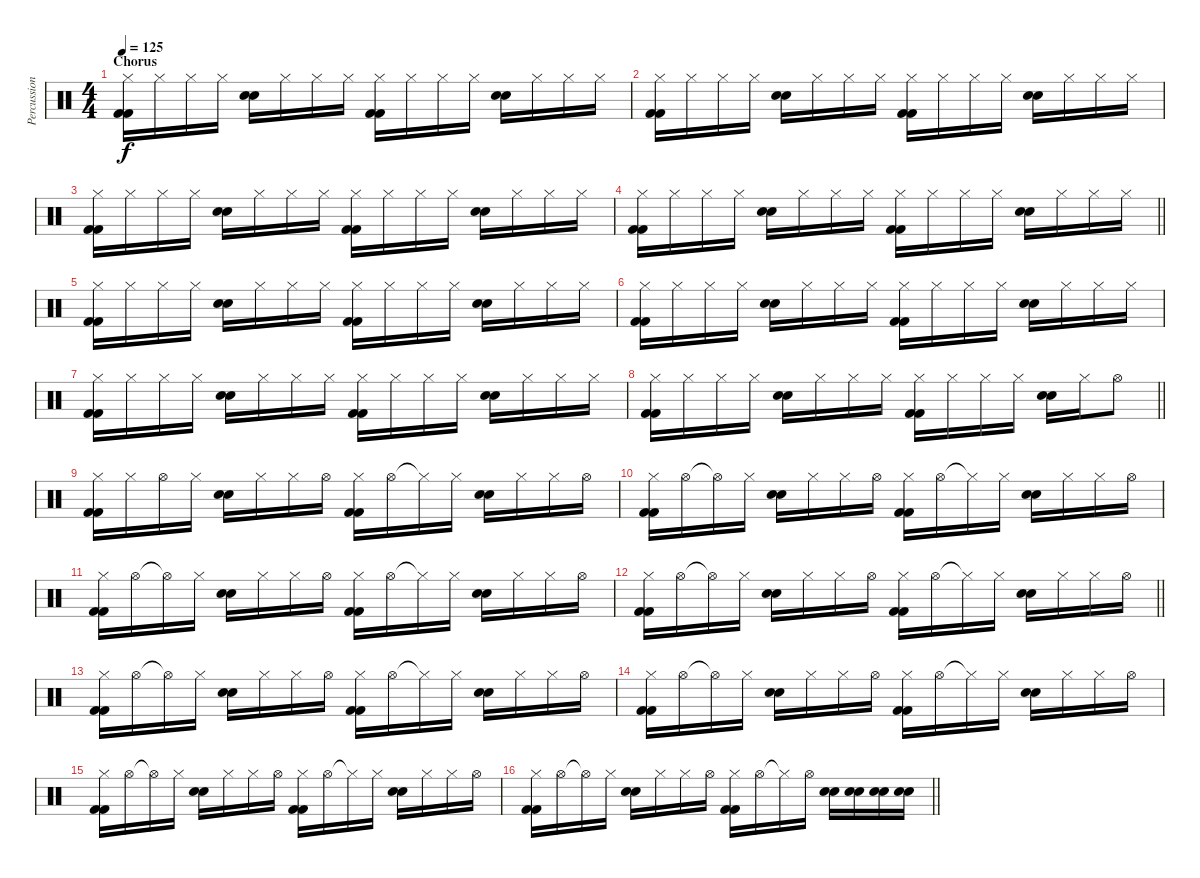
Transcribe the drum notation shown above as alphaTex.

\track ("Percussion2" "Percussion") {instrument percussion}
\staff {score}
\articulation defaults
\ts (4 4)
\section ("" "Chorus")
\tempo 125
\clef neutral
\ks c
("Hi-Hat (closed)" "Kick (hit) 2" "Kick (hit) 2").16{dy f} "Hi-Hat (closed)".16 "Hi-Hat (closed)".16 "Hi-Hat (closed)".16 ("Electric Snare (hit)" "Electric Snare (hit)").16 "Hi-Hat (closed)".16 "Hi-Hat (closed)".16 "Hi-Hat (closed)".16 ("Hi-Hat (closed)" "Kick (hit) 2" "Kick (hit) 2").16 "Hi-Hat (closed)".16 "Hi-Hat (closed)".16 "Hi-Hat (closed)".16 ("Electric Snare (hit)" "Electric Snare (hit)").16 "Hi-Hat (closed)".16 "Hi-Hat (closed)".16 "Hi-Hat (closed)".16 |
("Hi-Hat (closed)" "Kick (hit) 2" "Kick (hit) 2").16 "Hi-Hat (closed)".16 "Hi-Hat (closed)".16 "Hi-Hat (closed)".16 ("Electric Snare (hit)" "Electric Snare (hit)").16 "Hi-Hat (closed)".16 "Hi-Hat (closed)".16 "Hi-Hat (closed)".16 ("Hi-Hat (closed)" "Kick (hit) 2" "Kick (hit) 2").16 "Hi-Hat (closed)".16 "Hi-Hat (closed)".16 "Hi-Hat (closed)".16 ("Electric Snare (hit)" "Electric Snare (hit)").16 "Hi-Hat (closed)".16 "Hi-Hat (closed)".16 "Hi-Hat (closed)".16 |
("Hi-Hat (closed)" "Kick (hit) 2" "Kick (hit) 2").16 "Hi-Hat (closed)".16 "Hi-Hat (closed)".16 "Hi-Hat (closed)".16 ("Electric Snare (hit)" "Electric Snare (hit)").16 "Hi-Hat (closed)".16 "Hi-Hat (closed)".16 "Hi-Hat (closed)".16 ("Hi-Hat (closed)" "Kick (hit) 2" "Kick (hit) 2").16 "Hi-Hat (closed)".16 "Hi-Hat (closed)".16 "Hi-Hat (closed)".16 ("Electric Snare (hit)" "Electric Snare (hit)").16 "Hi-Hat (closed)".16 "Hi-Hat (closed)".16 "Hi-Hat (closed)".16 |
\barLineRight lightlight
("Hi-Hat (closed)" "Kick (hit) 2" "Kick (hit) 2").16 "Hi-Hat (closed)".16 "Hi-Hat (closed)".16 "Hi-Hat (closed)".16 ("Electric Snare (hit)" "Electric Snare (hit)").16 "Hi-Hat (closed)".16 "Hi-Hat (closed)".16 "Hi-Hat (closed)".16 ("Hi-Hat (closed)" "Kick (hit) 2" "Kick (hit) 2").16 "Hi-Hat (closed)".16 "Hi-Hat (closed)".16 "Hi-Hat (closed)".16 ("Electric Snare (hit)" "Electric Snare (hit)").16 "Hi-Hat (closed)".16 "Hi-Hat (closed)".16 "Hi-Hat (closed)".16 |
("Hi-Hat (closed)" "Kick (hit) 2" "Kick (hit) 2").16 "Hi-Hat (closed)".16 "Hi-Hat (closed)".16 "Hi-Hat (closed)".16 ("Electric Snare (hit)" "Electric Snare (hit)").16 "Hi-Hat (closed)".16 "Hi-Hat (closed)".16 "Hi-Hat (closed)".16 ("Hi-Hat (closed)" "Kick (hit) 2" "Kick (hit) 2").16 "Hi-Hat (closed)".16 "Hi-Hat (closed)".16 "Hi-Hat (closed)".16 ("Electric Snare (hit)" "Electric Snare (hit)").16 "Hi-Hat (closed)".16 "Hi-Hat (closed)".16 "Hi-Hat (closed)".16 |
("Hi-Hat (closed)" "Kick (hit) 2" "Kick (hit) 2").16 "Hi-Hat (closed)".16 "Hi-Hat (closed)".16 "Hi-Hat (closed)".16 ("Electric Snare (hit)" "Electric Snare (hit)").16 "Hi-Hat (closed)".16 "Hi-Hat (closed)".16 "Hi-Hat (closed)".16 ("Hi-Hat (closed)" "Kick (hit) 2" "Kick (hit) 2").16 "Hi-Hat (closed)".16 "Hi-Hat (closed)".16 "Hi-Hat (closed)".16 ("Electric Snare (hit)" "Electric Snare (hit)").16 "Hi-Hat (closed)".16 "Hi-Hat (closed)".16 "Hi-Hat (closed)".16 |
("Hi-Hat (closed)" "Kick (hit) 2" "Kick (hit) 2").16 "Hi-Hat (closed)".16 "Hi-Hat (closed)".16 "Hi-Hat (closed)".16 ("Electric Snare (hit)" "Electric Snare (hit)").16 "Hi-Hat (closed)".16 "Hi-Hat (closed)".16 "Hi-Hat (closed)".16 ("Hi-Hat (closed)" "Kick (hit) 2" "Kick (hit) 2").16 "Hi-Hat (closed)".16 "Hi-Hat (closed)".16 "Hi-Hat (closed)".16 ("Electric Snare (hit)" "Electric Snare (hit)").16 "Hi-Hat (closed)".16 "Hi-Hat (closed)".16 "Hi-Hat (closed)".16 |
\barLineRight lightlight
("Hi-Hat (closed)" "Kick (hit) 2" "Kick (hit) 2").16 "Hi-Hat (closed)".16 "Hi-Hat (closed)".16 "Hi-Hat (closed)".16 ("Electric Snare (hit)" "Electric Snare (hit)").16 "Hi-Hat (closed)".16 "Hi-Hat (closed)".16 "Hi-Hat (closed)".16 ("Hi-Hat (closed)" "Kick (hit) 2" "Kick (hit) 2").16 "Hi-Hat (closed)".16 "Hi-Hat (closed)".16 "Hi-Hat (closed)".16 ("Electric Snare (hit)" "Electric Snare (hit)").16 "Hi-Hat (closed)".16 "Hi-Hat (open)".8 |
("Hi-Hat (closed)" "Kick (hit) 2" "Kick (hit) 2").16 "Hi-Hat (closed)".16 "Hi-Hat (open)".16 "Hi-Hat (closed)".16 ("Electric Snare (hit)" "Electric Snare (hit)").16 "Hi-Hat (closed)".16 "Hi-Hat (closed)".16 "Hi-Hat (open)".16 ("Hi-Hat (closed)" "Kick (hit) 2" "Kick (hit) 2").16 "Hi-Hat (open)".16 "Hi-Hat (closed)"{t}.16 "Hi-Hat (closed)".16 ("Electric Snare (hit)" "Electric Snare (hit)").16 "Hi-Hat (closed)".16 "Hi-Hat (closed)".16 "Hi-Hat (open)".16 |
("Hi-Hat (closed)" "Kick (hit) 2" "Kick (hit) 2").16 "Hi-Hat (open)".16 "Hi-Hat (open)"{t}.16 "Hi-Hat (closed)".16 ("Electric Snare (hit)" "Electric Snare (hit)").16 "Hi-Hat (closed)".16 "Hi-Hat (closed)".16 "Hi-Hat (open)".16 ("Hi-Hat (closed)" "Kick (hit) 2" "Kick (hit) 2").16 "Hi-Hat (open)".16 "Hi-Hat (closed)"{t}.16 "Hi-Hat (closed)".16 ("Electric Snare (hit)" "Electric Snare (hit)").16 "Hi-Hat (closed)".16 "Hi-Hat (closed)".16 "Hi-Hat (open)".16 |
("Hi-Hat (closed)" "Kick (hit) 2" "Kick (hit) 2").16 "Hi-Hat (open)".16 "Hi-Hat (open)"{t}.16 "Hi-Hat (closed)".16 ("Electric Snare (hit)" "Electric Snare (hit)").16 "Hi-Hat (closed)".16 "Hi-Hat (closed)".16 "Hi-Hat (open)".16 ("Hi-Hat (closed)" "Kick (hit) 2" "Kick (hit) 2").16 "Hi-Hat (open)".16 "Hi-Hat (closed)"{t}.16 "Hi-Hat (closed)".16 ("Electric Snare (hit)" "Electric Snare (hit)").16 "Hi-Hat (closed)".16 "Hi-Hat (closed)".16 "Hi-Hat (open)".16 |
\barLineRight lightlight
("Hi-Hat (closed)" "Kick (hit) 2" "Kick (hit) 2").16 "Hi-Hat (open)".16 "Hi-Hat (open)"{t}.16 "Hi-Hat (closed)".16 ("Electric Snare (hit)" "Electric Snare (hit)").16 "Hi-Hat (closed)".16 "Hi-Hat (closed)".16 "Hi-Hat (open)".16 ("Hi-Hat (closed)" "Kick (hit) 2" "Kick (hit) 2").16 "Hi-Hat (open)".16 "Hi-Hat (closed)"{t}.16 "Hi-Hat (closed)".16 ("Electric Snare (hit)" "Electric Snare (hit)").16 "Hi-Hat (closed)".16 "Hi-Hat (closed)".16 "Hi-Hat (open)".16 |
("Hi-Hat (closed)" "Kick (hit) 2" "Kick (hit) 2").16 "Hi-Hat (open)".16 "Hi-Hat (open)"{t}.16 "Hi-Hat (closed)".16 ("Electric Snare (hit)" "Electric Snare (hit)").16 "Hi-Hat (closed)".16 "Hi-Hat (closed)".16 "Hi-Hat (open)".16 ("Hi-Hat (closed)" "Kick (hit) 2" "Kick (hit) 2").16 "Hi-Hat (open)".16 "Hi-Hat (closed)"{t}.16 "Hi-Hat (closed)".16 ("Electric Snare (hit)" "Electric Snare (hit)").16 "Hi-Hat (closed)".16 "Hi-Hat (closed)".16 "Hi-Hat (open)".16 |
("Hi-Hat (closed)" "Kick (hit) 2" "Kick (hit) 2").16 "Hi-Hat (open)".16 "Hi-Hat (open)"{t}.16 "Hi-Hat (closed)".16 ("Electric Snare (hit)" "Electric Snare (hit)").16 "Hi-Hat (closed)".16 "Hi-Hat (closed)".16 "Hi-Hat (open)".16 ("Hi-Hat (closed)" "Kick (hit) 2" "Kick (hit) 2").16 "Hi-Hat (open)".16 "Hi-Hat (closed)"{t}.16 "Hi-Hat (closed)".16 ("Electric Snare (hit)" "Electric Snare (hit)").16 "Hi-Hat (closed)".16 "Hi-Hat (closed)".16 "Hi-Hat (open)".16 |
("Hi-Hat (closed)" "Kick (hit) 2" "Kick (hit) 2").16 "Hi-Hat (open)".16 "Hi-Hat (open)"{t}.16 "Hi-Hat (closed)".16 ("Electric Snare (hit)" "Electric Snare (hit)").16 "Hi-Hat (closed)".16 "Hi-Hat (closed)".16 "Hi-Hat (open)".16 ("Hi-Hat (closed)" "Kick (hit) 2" "Kick (hit) 2").16 "Hi-Hat (open)".16 "Hi-Hat (closed)"{t}.16 "Hi-Hat (closed)".16 ("Electric Snare (hit)" "Electric Snare (hit)").16 "Hi-Hat (closed)".16 "Hi-Hat (closed)".16 "Hi-Hat (open)".16 |
\barLineRight lightlight
("Hi-Hat (closed)" "Kick (hit) 2" "Kick (hit) 2").16 "Hi-Hat (open)".16 "Hi-Hat (open)"{t}.16 "Hi-Hat (closed)".16 ("Electric Snare (hit)" "Electric Snare (hit)").16 "Hi-Hat (closed)".16 "Hi-Hat (closed)".16 "Hi-Hat (open)".16 ("Hi-Hat (closed)" "Kick (hit) 2" "Kick (hit) 2").16 "Hi-Hat (open)".16 "Hi-Hat (closed)"{t}.16 "Hi-Hat (open)".16 ("Electric Snare (hit)" "Electric Snare (hit)").16 ("Electric Snare (hit)" "Electric Snare (hit)").16 ("Electric Snare (hit)" "Electric Snare (hit)").16 ("Electric Snare (hit)" "Electric Snare (hit)").16
